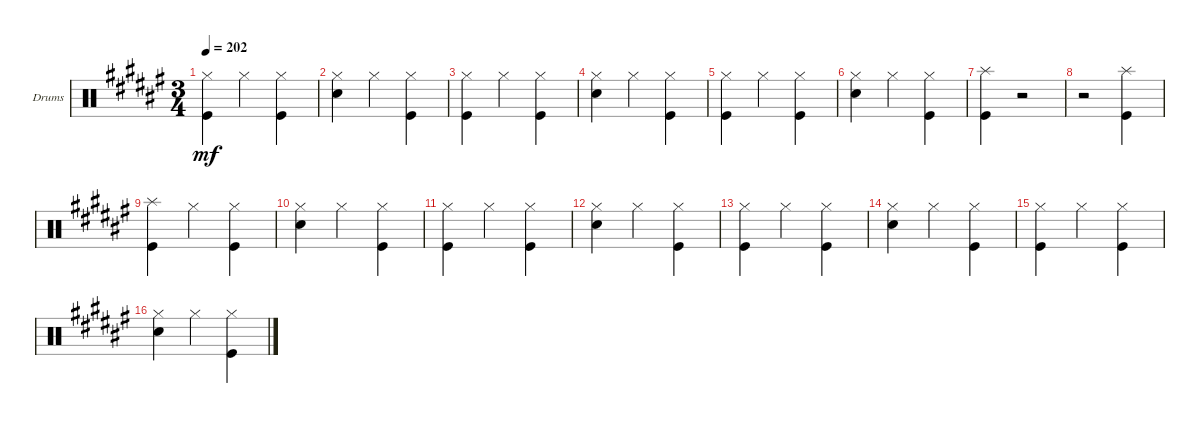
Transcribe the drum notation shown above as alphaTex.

\defaultSystemsLayout 4
\bracketExtendMode groupsimilarinstruments
\firstSystemTrackNameOrientation horizontal
\otherSystemsTrackNameOrientation horizontal
\track ("Drumkit" "Drums") {instrument percussion}
\staff {score}
\articulation defaults
\ts (3 4)
\tempo 202
\clef neutral
\ks f#
("Hi-Hat (closed)" "Kick (hit)").4{dy mf} "Hi-Hat (closed)".4 ("Hi-Hat (closed)" "Kick (hit)").4 |
("Snare (hit) 2" "Hi-Hat (closed)").4 "Hi-Hat (closed)".4 ("Hi-Hat (closed)" "Kick (hit)").4 |
("Kick (hit)" "Hi-Hat (closed)").4 "Hi-Hat (closed)".4 ("Hi-Hat (closed)" "Kick (hit)").4 |
("Hi-Hat (closed)" "Snare (hit) 2").4 "Hi-Hat (closed)".4 ("Hi-Hat (closed)" "Kick (hit)").4 |
("Hi-Hat (closed)" "Kick (hit)").4 "Hi-Hat (closed)".4 ("Hi-Hat (closed)" "Kick (hit)").4 |
("Snare (hit) 2" "Hi-Hat (closed)").4 "Hi-Hat (closed)".4 ("Hi-Hat (closed)" "Kick (hit)").4 |
("Kick (hit)" "Splash (hit)").4 r.2 |
r.2 ("Kick (hit)" "Splash (hit)").4 |
("Splash (hit)" "Kick (hit)").4 "Hi-Hat (closed)".4 ("Hi-Hat (closed)" "Kick (hit)").4 |
("Snare (hit) 2" "Hi-Hat (closed)").4 "Hi-Hat (closed)".4 ("Hi-Hat (closed)" "Kick (hit)").4 |
("Kick (hit)" "Hi-Hat (closed)").4 "Hi-Hat (closed)".4 ("Hi-Hat (closed)" "Kick (hit)").4 |
("Hi-Hat (closed)" "Snare (hit) 2").4 "Hi-Hat (closed)".4 ("Hi-Hat (closed)" "Kick (hit)").4 |
("Hi-Hat (closed)" "Kick (hit)").4 "Hi-Hat (closed)".4 ("Hi-Hat (closed)" "Kick (hit)").4 |
("Snare (hit) 2" "Hi-Hat (closed)").4 "Hi-Hat (closed)".4 ("Hi-Hat (closed)" "Kick (hit)").4 |
("Kick (hit)" "Hi-Hat (closed)").4 "Hi-Hat (closed)".4 ("Hi-Hat (closed)" "Kick (hit)").4 |
("Hi-Hat (closed)" "Snare (hit) 2").4 "Hi-Hat (closed)".4 ("Hi-Hat (closed)" "Kick (hit)").4
